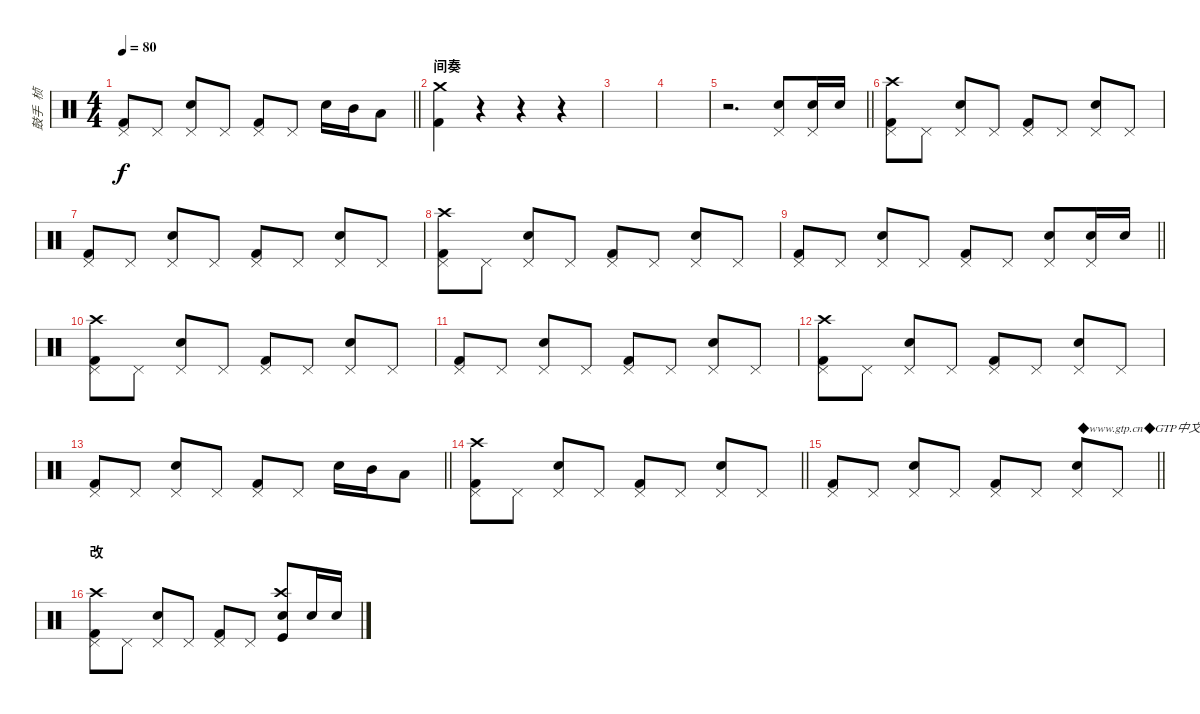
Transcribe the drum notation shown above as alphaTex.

\track ("鼓手  桢" "鼓手  桢") {instrument percussion}
\staff {score}
\articulation defaults
\ts (4 4)
\tempo 80
\clef neutral
\barLineRight lightlight
\ks c
("Pedal Hi-Hat (hit)" "Kick (hit) 2").8{dy f} "Pedal Hi-Hat (hit)".8 ("Pedal Hi-Hat (hit)" "Snare (hit) 2").8 "Pedal Hi-Hat (hit)".8 ("Pedal Hi-Hat (hit)" "Kick (hit) 2").8 "Pedal Hi-Hat (hit)".8 "Electric Snare (hit)".16 "Mid Tom (hit)".16 "Low Tom (hit)".8 |
\section ("" "间奏")
("Crash medium (hit)" "Kick (hit) 2").4 r.4 r.4 r.4 |
|
|
\barLineRight lightlight
r.2{d} ("Pedal Hi-Hat (hit)" "Snare (hit) 2").8 ("Pedal Hi-Hat (hit)" "Snare (hit) 2").16 "Snare (hit) 2".16 |
("Pedal Hi-Hat (hit)" "Kick (hit) 2" "Crash high (hit)").8 "Pedal Hi-Hat (hit)".8 ("Pedal Hi-Hat (hit)" "Snare (hit) 2").8 "Pedal Hi-Hat (hit)".8 ("Pedal Hi-Hat (hit)" "Kick (hit) 2").8 "Pedal Hi-Hat (hit)".8 ("Pedal Hi-Hat (hit)" "Snare (hit) 2").8 "Pedal Hi-Hat (hit)".8 |
("Pedal Hi-Hat (hit)" "Kick (hit) 2").8 "Pedal Hi-Hat (hit)".8 ("Pedal Hi-Hat (hit)" "Snare (hit) 2").8 "Pedal Hi-Hat (hit)".8 ("Pedal Hi-Hat (hit)" "Kick (hit) 2").8 "Pedal Hi-Hat (hit)".8 ("Pedal Hi-Hat (hit)" "Snare (hit) 2").8 "Pedal Hi-Hat (hit)".8 |
("Pedal Hi-Hat (hit)" "Kick (hit) 2" "Crash high (hit)").8 "Pedal Hi-Hat (hit)".8 ("Pedal Hi-Hat (hit)" "Snare (hit) 2").8 "Pedal Hi-Hat (hit)".8 ("Pedal Hi-Hat (hit)" "Kick (hit) 2").8 "Pedal Hi-Hat (hit)".8 ("Pedal Hi-Hat (hit)" "Snare (hit) 2").8 "Pedal Hi-Hat (hit)".8 |
\barLineRight lightlight
("Pedal Hi-Hat (hit)" "Kick (hit) 2").8 "Pedal Hi-Hat (hit)".8 ("Pedal Hi-Hat (hit)" "Snare (hit) 2").8 "Pedal Hi-Hat (hit)".8 ("Pedal Hi-Hat (hit)" "Kick (hit) 2").8 "Pedal Hi-Hat (hit)".8 ("Pedal Hi-Hat (hit)" "Snare (hit) 2").8 ("Pedal Hi-Hat (hit)" "Snare (hit) 2").16 "Snare (hit) 2".16 |
("Pedal Hi-Hat (hit)" "Kick (hit) 2" "Crash high (hit)").8 "Pedal Hi-Hat (hit)".8 ("Pedal Hi-Hat (hit)" "Snare (hit) 2").8 "Pedal Hi-Hat (hit)".8 ("Pedal Hi-Hat (hit)" "Kick (hit) 2").8 "Pedal Hi-Hat (hit)".8 ("Pedal Hi-Hat (hit)" "Snare (hit) 2").8 "Pedal Hi-Hat (hit)".8 |
("Pedal Hi-Hat (hit)" "Kick (hit) 2").8 "Pedal Hi-Hat (hit)".8 ("Pedal Hi-Hat (hit)" "Snare (hit) 2").8 "Pedal Hi-Hat (hit)".8 ("Pedal Hi-Hat (hit)" "Kick (hit) 2").8 "Pedal Hi-Hat (hit)".8 ("Pedal Hi-Hat (hit)" "Snare (hit) 2").8 "Pedal Hi-Hat (hit)".8 |
("Pedal Hi-Hat (hit)" "Kick (hit) 2" "Crash high (hit)").8 "Pedal Hi-Hat (hit)".8 ("Pedal Hi-Hat (hit)" "Snare (hit) 2").8 "Pedal Hi-Hat (hit)".8 ("Pedal Hi-Hat (hit)" "Kick (hit) 2").8 "Pedal Hi-Hat (hit)".8 ("Pedal Hi-Hat (hit)" "Snare (hit) 2").8 "Pedal Hi-Hat (hit)".8 |
\barLineRight lightlight
("Pedal Hi-Hat (hit)" "Kick (hit) 2").8 "Pedal Hi-Hat (hit)".8 ("Pedal Hi-Hat (hit)" "Snare (hit) 2").8 "Pedal Hi-Hat (hit)".8 ("Pedal Hi-Hat (hit)" "Kick (hit) 2").8 "Pedal Hi-Hat (hit)".8 "Electric Snare (hit)".16 "Mid Tom (hit)".16 "Low Tom (hit)".8 |
\barLineRight lightlight
("Pedal Hi-Hat (hit)" "Kick (hit) 2" "Crash high (hit)").8 "Pedal Hi-Hat (hit)".8 ("Pedal Hi-Hat (hit)" "Snare (hit) 2").8 "Pedal Hi-Hat (hit)".8 ("Pedal Hi-Hat (hit)" "Kick (hit) 2").8 "Pedal Hi-Hat (hit)".8 ("Pedal Hi-Hat (hit)" "Snare (hit) 2").8 "Pedal Hi-Hat (hit)".8 |
\barLineRight lightlight
("Pedal Hi-Hat (hit)" "Kick (hit) 2").8 "Pedal Hi-Hat (hit)".8 ("Pedal Hi-Hat (hit)" "Snare (hit) 2").8 "Pedal Hi-Hat (hit)".8 ("Pedal Hi-Hat (hit)" "Kick (hit) 2").8 "Pedal Hi-Hat (hit)".8 ("Pedal Hi-Hat (hit)" "Snare (hit) 2").8{txt "◆www.gtp.cn◆GTP中文网为您提供优秀的GTP！"} "Pedal Hi-Hat (hit)".8 |
\section ("" "改")
("Pedal Hi-Hat (hit)" "Kick (hit) 2" "Crash high (hit)").8 "Pedal Hi-Hat (hit)".8 ("Pedal Hi-Hat (hit)" "Snare (hit) 2").8 "Pedal Hi-Hat (hit)".8 ("Pedal Hi-Hat (hit)" "Kick (hit) 2").8 "Pedal Hi-Hat (hit)".8 ("Crash high (hit)" "Snare (hit) 2" "Kick (hit)").8 "Snare (hit) 2".16 "Snare (hit) 2".16
